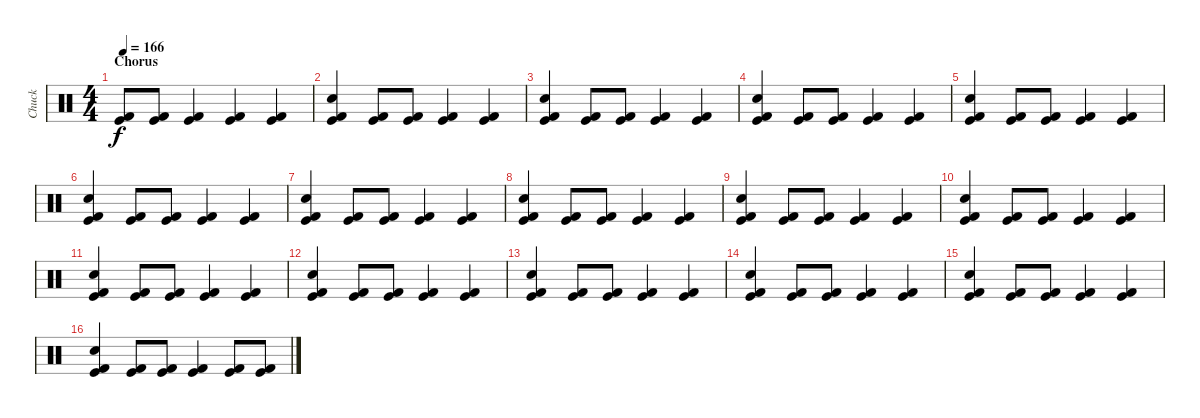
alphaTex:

\track ("Chuck" "Chuck") {instrument percussion}
\staff {score}
\articulation defaults
\ts (4 4)
\section ("" "Chorus")
\tempo 166
\clef neutral
\ks c
("Kick (hit)" "Kick (hit) 2").8{dy f} ("Kick (hit)" "Kick (hit) 2").8 ("Kick (hit)" "Kick (hit) 2").4 ("Kick (hit)" "Kick (hit) 2").4 ("Kick (hit)" "Kick (hit) 2").4 |
("Kick (hit)" "Kick (hit) 2" "Electric Snare (hit)").4 ("Kick (hit)" "Kick (hit) 2").8 ("Kick (hit)" "Kick (hit) 2").8 ("Kick (hit)" "Kick (hit) 2").4 ("Kick (hit)" "Kick (hit) 2").4 |
("Kick (hit)" "Kick (hit) 2" "Electric Snare (hit)").4 ("Kick (hit)" "Kick (hit) 2").8 ("Kick (hit)" "Kick (hit) 2").8 ("Kick (hit)" "Kick (hit) 2").4 ("Kick (hit)" "Kick (hit) 2").4 |
("Kick (hit)" "Kick (hit) 2" "Electric Snare (hit)").4 ("Kick (hit)" "Kick (hit) 2").8 ("Kick (hit)" "Kick (hit) 2").8 ("Kick (hit)" "Kick (hit) 2").4 ("Kick (hit)" "Kick (hit) 2").4 |
("Kick (hit)" "Kick (hit) 2" "Electric Snare (hit)").4 ("Kick (hit)" "Kick (hit) 2").8 ("Kick (hit)" "Kick (hit) 2").8 ("Kick (hit)" "Kick (hit) 2").4 ("Kick (hit)" "Kick (hit) 2").4 |
("Kick (hit)" "Kick (hit) 2" "Electric Snare (hit)").4 ("Kick (hit)" "Kick (hit) 2").8 ("Kick (hit)" "Kick (hit) 2").8 ("Kick (hit)" "Kick (hit) 2").4 ("Kick (hit)" "Kick (hit) 2").4 |
("Kick (hit)" "Kick (hit) 2" "Electric Snare (hit)").4 ("Kick (hit)" "Kick (hit) 2").8 ("Kick (hit)" "Kick (hit) 2").8 ("Kick (hit)" "Kick (hit) 2").4 ("Kick (hit)" "Kick (hit) 2").4 |
("Kick (hit)" "Kick (hit) 2" "Electric Snare (hit)").4 ("Kick (hit)" "Kick (hit) 2").8 ("Kick (hit)" "Kick (hit) 2").8 ("Kick (hit)" "Kick (hit) 2").4 ("Kick (hit)" "Kick (hit) 2").4 |
("Kick (hit)" "Kick (hit) 2" "Electric Snare (hit)").4 ("Kick (hit)" "Kick (hit) 2").8 ("Kick (hit)" "Kick (hit) 2").8 ("Kick (hit)" "Kick (hit) 2").4 ("Kick (hit)" "Kick (hit) 2").4 |
("Kick (hit)" "Kick (hit) 2" "Electric Snare (hit)").4 ("Kick (hit)" "Kick (hit) 2").8 ("Kick (hit)" "Kick (hit) 2").8 ("Kick (hit)" "Kick (hit) 2").4 ("Kick (hit)" "Kick (hit) 2").4 |
("Kick (hit)" "Kick (hit) 2" "Electric Snare (hit)").4 ("Kick (hit)" "Kick (hit) 2").8 ("Kick (hit)" "Kick (hit) 2").8 ("Kick (hit)" "Kick (hit) 2").4 ("Kick (hit)" "Kick (hit) 2").4 |
("Kick (hit)" "Kick (hit) 2" "Electric Snare (hit)").4 ("Kick (hit)" "Kick (hit) 2").8 ("Kick (hit)" "Kick (hit) 2").8 ("Kick (hit)" "Kick (hit) 2").4 ("Kick (hit)" "Kick (hit) 2").4 |
("Kick (hit)" "Kick (hit) 2" "Electric Snare (hit)").4 ("Kick (hit)" "Kick (hit) 2").8 ("Kick (hit)" "Kick (hit) 2").8 ("Kick (hit)" "Kick (hit) 2").4 ("Kick (hit)" "Kick (hit) 2").4 |
("Kick (hit)" "Kick (hit) 2" "Electric Snare (hit)").4 ("Kick (hit)" "Kick (hit) 2").8 ("Kick (hit)" "Kick (hit) 2").8 ("Kick (hit)" "Kick (hit) 2").4 ("Kick (hit)" "Kick (hit) 2").4 |
("Kick (hit)" "Kick (hit) 2" "Electric Snare (hit)").4 ("Kick (hit)" "Kick (hit) 2").8 ("Kick (hit)" "Kick (hit) 2").8 ("Kick (hit)" "Kick (hit) 2").4 ("Kick (hit)" "Kick (hit) 2").4 |
("Kick (hit)" "Kick (hit) 2" "Electric Snare (hit)").4 ("Kick (hit)" "Kick (hit) 2").8 ("Kick (hit)" "Kick (hit) 2").8 ("Kick (hit)" "Kick (hit) 2").4 ("Kick (hit)" "Kick (hit) 2").8 ("Kick (hit)" "Kick (hit) 2").8
